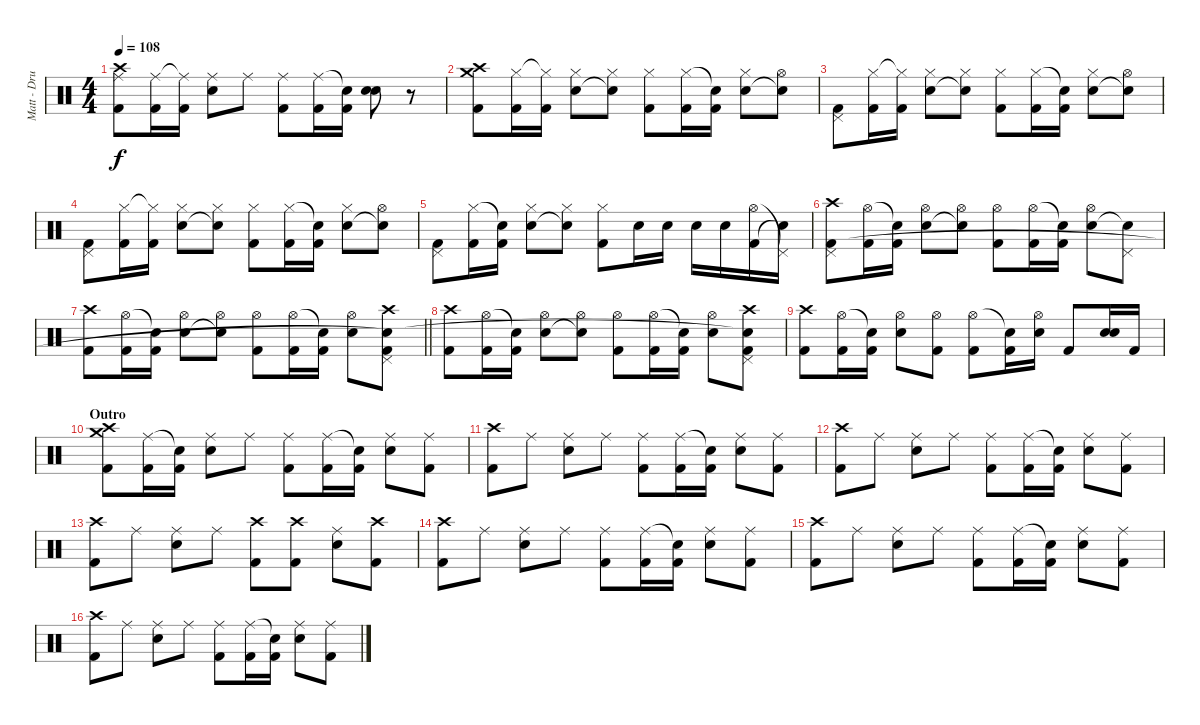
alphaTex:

\track ("Matt - Drums" "Matt - Dru") {instrument percussion}
\staff {score}
\articulation defaults
\ts (4 4)
\tempo 108
\clef neutral
\ks c
("Crash high (hit)" "Ride (middle)" "Kick (hit) 2").8{dy f} ("Ride (middle)" "Kick (hit) 2").16 ("Ride (middle)"{t} "Kick (hit) 2").16 ("Ride (middle)" "Snare (hit) 2").8 "Ride (middle)".8 ("Ride (middle)" "Kick (hit) 2").8 ("Ride (middle)" "Kick (hit) 2").16 ("Snare (hit)"{t} "Kick (hit) 2").16 ("Snare (hit) 2" "Snare (hit) 2").8 r.8 |
("Crash high (hit)" "Crash medium (hit)" "Kick (hit) 2").8 ("Hi-Hat (closed)" "Kick (hit) 2").16 ("Hi-Hat (closed)"{t} "Kick (hit) 2").16 ("Hi-Hat (closed)" "Snare (hit) 2").8 ("Hi-Hat (closed)" "Snare (hit)"{t}).8 ("Hi-Hat (closed)" "Kick (hit) 2").8 ("Hi-Hat (closed)" "Kick (hit) 2").16 ("Snare (hit)"{t} "Kick (hit) 2").16 ("Hi-Hat (closed)" "Snare (hit) 2").8 ("Hi-Hat (open)" "Snare (hit)"{t}).8 |
("Pedal Hi-Hat (hit)" "Kick (hit) 2").8 ("Hi-Hat (closed)" "Kick (hit) 2").16 ("Hi-Hat (closed)"{t} "Kick (hit) 2").16 ("Hi-Hat (closed)" "Snare (hit) 2").8 ("Hi-Hat (closed)" "Snare (hit)"{t}).8 ("Hi-Hat (closed)" "Kick (hit) 2").8 ("Hi-Hat (closed)" "Kick (hit) 2").16 ("Snare (hit)"{t} "Kick (hit) 2").16 ("Hi-Hat (closed)" "Snare (hit) 2").8 ("Hi-Hat (open)" "Snare (hit)"{t}).8 |
("Pedal Hi-Hat (hit)" "Kick (hit) 2").8 ("Hi-Hat (closed)" "Kick (hit) 2").16 ("Hi-Hat (closed)"{t} "Kick (hit) 2").16 ("Hi-Hat (closed)" "Snare (hit) 2").8 ("Hi-Hat (closed)" "Snare (hit)"{t}).8 ("Hi-Hat (closed)" "Kick (hit) 2").8 ("Hi-Hat (closed)" "Kick (hit) 2").16 ("Snare (hit)"{t} "Kick (hit) 2").16 ("Hi-Hat (closed)" "Snare (hit) 2").8 ("Hi-Hat (open)" "Snare (hit)"{t}).8 |
("Pedal Hi-Hat (hit)" "Kick (hit) 2").8 ("Hi-Hat (closed)" "Kick (hit) 2").16 ("Snare (hit)"{t} "Kick (hit) 2").16 ("Hi-Hat (closed)" "Snare (hit) 2").8 ("Hi-Hat (closed)" "Snare (hit)"{t}).8 ("Hi-Hat (closed)" "Kick (hit) 2").8 "Snare (hit) 2".16 "Snare (hit) 2".16 "Snare (hit) 2".16 "Snare (hit) 2".16 ("Hi-Hat (open)" "Kick (hit) 2").16 ("Pedal Hi-Hat (hit)"{t} "Snare (hit)"{t}).16 |
("Crash high (hit)" "Pedal Hi-Hat (hit)" "Kick (hit) 2").8 ("Hi-Hat (open)" "Kick (hit) 2").16 ("Snare (hit)"{t} "Kick (hit) 2").16 ("Hi-Hat (open)" "Snare (hit) 2").8 ("Hi-Hat (open)" "Snare (hit)"{t}).8 ("Hi-Hat (open)" "Kick (hit) 2").8 ("Hi-Hat (open)" "Kick (hit) 2").16 ("Snare (hit)"{t} "Kick (hit) 2").16 ("Hi-Hat (open)" "Snare (hit) 2").8 ("Pedal Hi-Hat (hit)" "Snare (hit)"{t}).8 |
\barLineRight lightlight
("Crash high (hit)" "Kick (hit) 2").8 ("Hi-Hat (open)" "Kick (hit) 2").16 ("Snare (hit)"{t} "Kick (hit) 2").16 ("Hi-Hat (open)" "Snare (hit) 2").8 ("Hi-Hat (open)" "Snare (hit)"{t}).8 ("Hi-Hat (open)" "Kick (hit) 2").8 ("Hi-Hat (open)" "Kick (hit) 2").16 ("Snare (hit)"{t} "Kick (hit) 2").16 ("Hi-Hat (open)" "Snare (hit) 2").8 ("Crash high (hit)" "Pedal Hi-Hat (hit)" "Snare (hit)"{t} "Kick (hit) 2").8 |
("Crash high (hit)" "Kick (hit) 2").8 ("Hi-Hat (open)" "Kick (hit) 2").16 ("Snare (hit)"{t} "Kick (hit) 2").16 ("Hi-Hat (open)" "Snare (hit) 2").8 ("Hi-Hat (open)" "Snare (hit)"{t}).8 ("Hi-Hat (open)" "Kick (hit) 2").8 ("Hi-Hat (open)" "Kick (hit) 2").16 ("Snare (hit)"{t} "Kick (hit) 2").16 ("Hi-Hat (open)" "Snare (hit) 2").8 ("Crash high (hit)" "Pedal Hi-Hat (hit)" "Snare (hit)"{t} "Kick (hit) 2").8 |
("Crash high (hit)" "Kick (hit) 2").8 ("Hi-Hat (open)" "Kick (hit) 2").16 ("Snare (hit)"{t} "Kick (hit) 2").16 ("Hi-Hat (open)" "Snare (hit) 2").8 ("Hi-Hat (open)" "Kick (hit) 2").8 ("Hi-Hat (open)" "Kick (hit) 2").8 ("Snare (hit)"{t} "Kick (hit) 2").16 ("Hi-Hat (open)" "Snare (hit) 2").16 "Kick (hit) 2".8 ("Snare (hit) 2" "Snare (hit) 2").16 "Kick (hit) 2".16 |
\section ("" "Outro")
("Crash high (hit)" "Crash medium (hit)" "Kick (hit) 2").8 ("Ride (middle)" "Kick (hit) 2").16 ("Snare (hit)"{t} "Kick (hit) 2").16 ("Ride (middle)" "Snare (hit) 2").8 "Ride (middle)".8 ("Ride (middle)" "Kick (hit) 2").8 ("Ride (middle)" "Kick (hit) 2").16 ("Snare (hit)"{t} "Kick (hit) 2").16 ("Ride (middle)" "Snare (hit) 2").8 ("Ride (middle)" "Kick (hit) 2").8 |
("Crash high (hit)" "Kick (hit) 2").8 "Ride (middle)".8 ("Ride (middle)" "Snare (hit) 2").8 "Ride (middle)".8 ("Ride (middle)" "Kick (hit) 2").8 ("Ride (middle)" "Kick (hit) 2").16 ("Snare (hit)"{t} "Kick (hit) 2").16 ("Ride (middle)" "Snare (hit) 2").8 ("Ride (middle)" "Kick (hit) 2").8 |
("Crash high (hit)" "Kick (hit) 2").8 "Ride (middle)".8 ("Ride (middle)" "Snare (hit) 2").8 "Ride (middle)".8 ("Ride (middle)" "Kick (hit) 2").8 ("Ride (middle)" "Kick (hit) 2").16 ("Snare (hit)"{t} "Kick (hit) 2").16 ("Ride (middle)" "Snare (hit) 2").8 ("Ride (middle)" "Kick (hit) 2").8 |
("Crash high (hit)" "Kick (hit) 2").8 "Ride (middle)".8 ("Ride (middle)" "Snare (hit) 2").8 "Ride (middle)".8 ("Crash high (hit)" "Kick (hit) 2").8 ("Crash high (hit)" "Kick (hit) 2").8 ("Ride (middle)" "Snare (hit) 2").8 ("Crash high (hit)" "Kick (hit) 2").8 |
("Crash high (hit)" "Kick (hit) 2").8 "Ride (middle)".8 ("Ride (middle)" "Snare (hit) 2").8 "Ride (middle)".8 ("Ride (middle)" "Kick (hit) 2").8 ("Ride (middle)" "Kick (hit) 2").16 ("Snare (hit)"{t} "Kick (hit) 2").16 ("Ride (middle)" "Snare (hit) 2").8 ("Ride (middle)" "Kick (hit) 2").8 |
("Crash high (hit)" "Kick (hit) 2").8 "Ride (middle)".8 ("Ride (middle)" "Snare (hit) 2").8 "Ride (middle)".8 ("Ride (middle)" "Kick (hit) 2").8 ("Ride (middle)" "Kick (hit) 2").16 ("Snare (hit)"{t} "Kick (hit) 2").16 ("Ride (middle)" "Snare (hit) 2").8 ("Ride (middle)" "Kick (hit) 2").8 |
("Crash high (hit)" "Kick (hit) 2").8 "Ride (middle)".8 ("Ride (middle)" "Snare (hit) 2").8 "Ride (middle)".8 ("Ride (middle)" "Kick (hit) 2").8 ("Ride (middle)" "Kick (hit) 2").16 ("Snare (hit)"{t} "Kick (hit) 2").16 ("Ride (middle)" "Snare (hit) 2").8 ("Ride (middle)" "Kick (hit) 2").8
